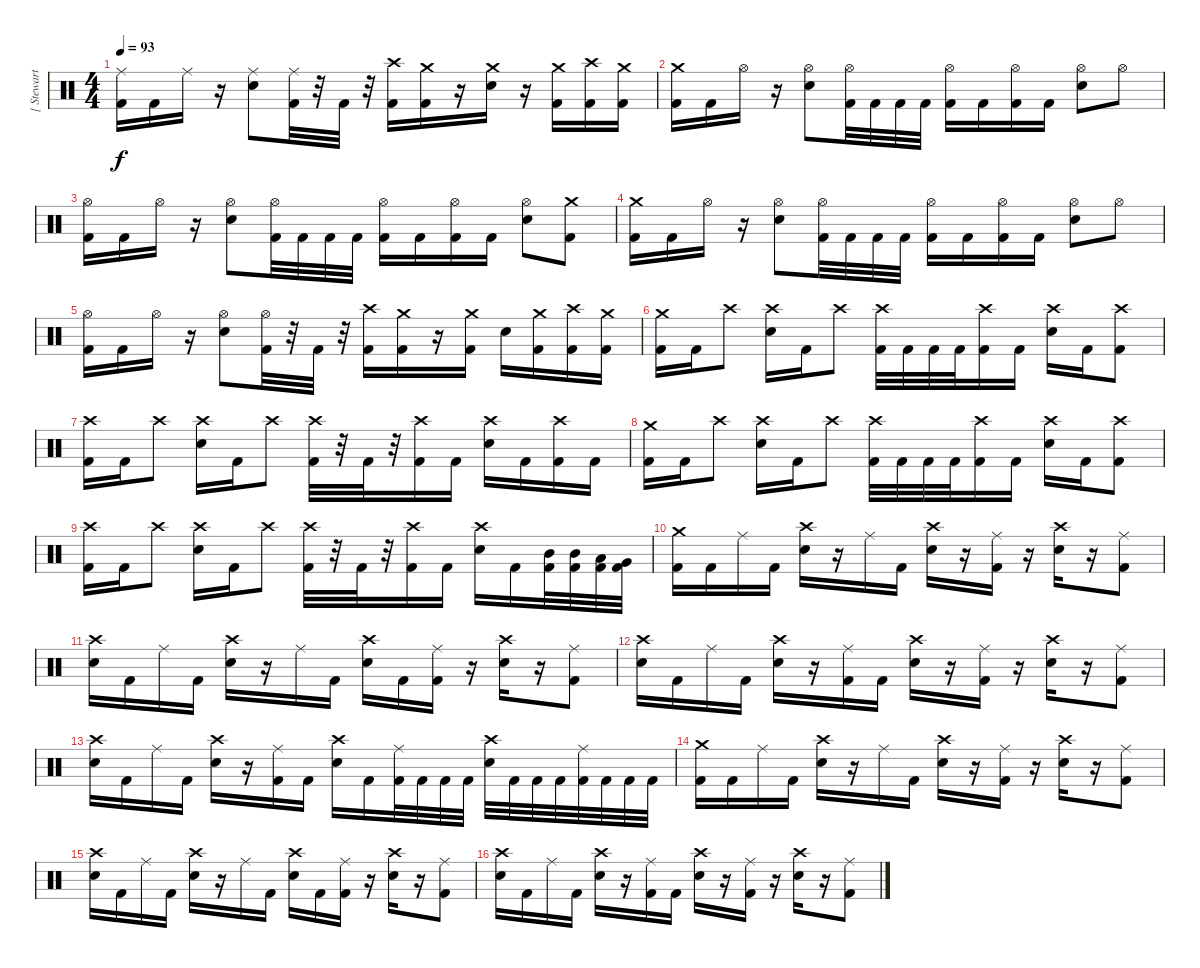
\track ("[ Stewart ]" "[ Stewart ") {instrument percussion}
\staff {score}
\articulation defaults
\ts (4 4)
\tempo 93
\clef neutral
\ks c
("Kick (hit) 2" "Ride (middle)").16{dy f} "Kick (hit) 2".16 "Ride (middle)".16 r.16 ("Electric Snare (hit)" "Ride (middle)").8 ("Kick (hit) 2" "Ride (middle)").32 r.32 "Kick (hit) 2".32 r.32 ("Kick (hit) 2" "Crash high (hit)").16 ("Kick (hit) 2" "Crash medium (hit)").16 r.16 ("Electric Snare (hit)" "Crash medium (hit)").16 r.16 ("Kick (hit) 2" "Crash medium (hit)").16 ("Kick (hit) 2" "Crash high (hit)").16 ("Kick (hit) 2" "Crash medium (hit)").16 |
("Kick (hit) 2" "Crash medium (hit)").16 "Kick (hit) 2".16 "Hi-Hat (open)".16 r.16 ("Electric Snare (hit)" "Hi-Hat (open)").8 ("Kick (hit) 2" "Hi-Hat (open)").32 "Kick (hit) 2".32 "Kick (hit) 2".32 "Kick (hit) 2".32 ("Kick (hit) 2" "Hi-Hat (open)").16 "Kick (hit) 2".16 ("Kick (hit) 2" "Hi-Hat (open)").16 "Kick (hit) 2".16 ("Electric Snare (hit)" "Hi-Hat (open)").8 "Hi-Hat (open)".8 |
("Kick (hit) 2" "Hi-Hat (open)").16 "Kick (hit) 2".16 "Hi-Hat (open)".16 r.16 ("Electric Snare (hit)" "Hi-Hat (open)").8 ("Kick (hit) 2" "Hi-Hat (open)").32 "Kick (hit) 2".32 "Kick (hit) 2".32 "Kick (hit) 2".32 ("Kick (hit) 2" "Hi-Hat (open)").16 "Kick (hit) 2".16 ("Kick (hit) 2" "Hi-Hat (open)").16 "Kick (hit) 2".16 ("Electric Snare (hit)" "Hi-Hat (open)").8 ("Kick (hit) 2" "Crash medium (hit)").8 |
("Kick (hit) 2" "Crash medium (hit)").16 "Kick (hit) 2".16 "Hi-Hat (open)".16 r.16 ("Electric Snare (hit)" "Hi-Hat (open)").8 ("Kick (hit) 2" "Hi-Hat (open)").32 "Kick (hit) 2".32 "Kick (hit) 2".32 "Kick (hit) 2".32 ("Kick (hit) 2" "Hi-Hat (open)").16 "Kick (hit) 2".16 ("Kick (hit) 2" "Hi-Hat (open)").16 "Kick (hit) 2".16 ("Electric Snare (hit)" "Hi-Hat (open)").8 "Hi-Hat (open)".8 |
("Kick (hit) 2" "Hi-Hat (open)").16 "Kick (hit) 2".16 "Hi-Hat (open)".16 r.16 ("Electric Snare (hit)" "Hi-Hat (open)").8 ("Kick (hit) 2" "Hi-Hat (open)").32 r.32 "Kick (hit) 2".32 r.32 ("Kick (hit) 2" "Crash high (hit)").16 ("Kick (hit) 2" "Crash medium (hit)").16 r.16 ("Kick (hit) 2" "Crash medium (hit)").16 "Electric Snare (hit)".16 ("Kick (hit) 2" "Crash medium (hit)").16 ("Kick (hit) 2" "Crash high (hit)").16 ("Kick (hit) 2" "Crash medium (hit)").16 |
("Kick (hit) 2" "Crash medium (hit)").16 "Kick (hit) 2".16 "Crash high (hit)".8 ("Electric Snare (hit)" "Crash high (hit)").16 "Kick (hit) 2".16 "Crash high (hit)".8 ("Kick (hit) 2" "Crash high (hit)").32 "Kick (hit) 2".32 "Kick (hit) 2".32 "Kick (hit) 2".32 ("Kick (hit) 2" "Crash high (hit)").16 "Kick (hit) 2".16 ("Electric Snare (hit)" "Crash high (hit)").16 "Kick (hit) 2".16 ("Kick (hit) 2" "Crash high (hit)").8 |
("Kick (hit) 2" "Crash high (hit)").16 "Kick (hit) 2".16 "Crash high (hit)".8 ("Electric Snare (hit)" "Crash high (hit)").16 "Kick (hit) 2".16 "Crash high (hit)".8 ("Kick (hit) 2" "Crash high (hit)").32 r.32 "Kick (hit) 2".32 r.32 ("Kick (hit) 2" "Crash high (hit)").16 "Kick (hit) 2".16 ("Electric Snare (hit)" "Crash high (hit)").16 "Kick (hit) 2".16 ("Kick (hit) 2" "Crash high (hit)").16 "Kick (hit) 2".16 |
("Kick (hit) 2" "Crash medium (hit)").16 "Kick (hit) 2".16 "Crash high (hit)".8 ("Electric Snare (hit)" "Crash high (hit)").16 "Kick (hit) 2".16 "Crash high (hit)".8 ("Kick (hit) 2" "Crash high (hit)").32 "Kick (hit) 2".32 "Kick (hit) 2".32 "Kick (hit) 2".32 ("Kick (hit) 2" "Crash high (hit)").16 "Kick (hit) 2".16 ("Electric Snare (hit)" "Crash high (hit)").16 "Kick (hit) 2".16 ("Kick (hit) 2" "Crash high (hit)").8 |
("Kick (hit) 2" "Crash high (hit)").16 "Kick (hit) 2".16 "Crash high (hit)".8 ("Electric Snare (hit)" "Crash high (hit)").16 "Kick (hit) 2".16 "Crash high (hit)".8 ("Kick (hit) 2" "Crash high (hit)").32 r.32 "Kick (hit) 2".32 r.32 ("Kick (hit) 2" "Crash high (hit)").16 "Kick (hit) 2".16 ("Electric Snare (hit)" "Crash high (hit)").16 "Kick (hit) 2".16 ("Mid Tom (hit)" "Kick (hit) 2").32 ("Mid Tom (hit)" "Kick (hit) 2").32 ("Low Tom (hit)" "Kick (hit) 2").32 ("Very Low Tom (hit)" "Kick (hit) 2").32 |
("Kick (hit) 2" "Crash medium (hit)").16 "Kick (hit) 2".16 "Ride (middle)".16 "Kick (hit) 2".16 ("Electric Snare (hit)" "Crash high (hit)").16 r.16 "Ride (middle)".16 "Kick (hit) 2".16 ("Electric Snare (hit)" "Crash high (hit)").16 r.16 ("Kick (hit) 2" "Ride (middle)").16 r.16 ("Electric Snare (hit)" "Crash high (hit)").16 r.16 ("Kick (hit) 2" "Ride (middle)").8 |
("Electric Snare (hit)" "Crash high (hit)").16 "Kick (hit) 2".16 "Ride (middle)".16 "Kick (hit) 2".16 ("Electric Snare (hit)" "Crash high (hit)").16 r.16 "Ride (middle)".16 "Kick (hit) 2".16 ("Electric Snare (hit)" "Crash high (hit)").16 "Kick (hit) 2".16 ("Kick (hit) 2" "Ride (middle)").16 r.16 ("Electric Snare (hit)" "Crash high (hit)").16 r.16 ("Kick (hit) 2" "Ride (middle)").8 |
("Electric Snare (hit)" "Crash high (hit)").16 "Kick (hit) 2".16 "Ride (middle)".16 "Kick (hit) 2".16 ("Electric Snare (hit)" "Crash high (hit)").16 r.16 ("Kick (hit) 2" "Ride (middle)").16 "Kick (hit) 2".16 ("Electric Snare (hit)" "Crash high (hit)").16 r.16 ("Kick (hit) 2" "Ride (middle)").16 r.16 ("Electric Snare (hit)" "Crash high (hit)").16 r.16 ("Kick (hit) 2" "Ride (middle)").8 |
("Electric Snare (hit)" "Crash high (hit)").16 "Kick (hit) 2".16 "Ride (middle)".16 "Kick (hit) 2".16 ("Electric Snare (hit)" "Crash high (hit)").16 r.16 ("Kick (hit) 2" "Ride (middle)").16 "Kick (hit) 2".16 ("Electric Snare (hit)" "Crash high (hit)").16 "Kick (hit) 2".16 ("Kick (hit) 2" "Ride (middle)").32 "Kick (hit) 2".32 "Kick (hit) 2".32 "Kick (hit) 2".32 ("Electric Snare (hit)" "Crash high (hit)").32 "Kick (hit) 2".32 "Kick (hit) 2".32 "Kick (hit) 2".32 ("Kick (hit) 2" "Ride (middle)").32 "Kick (hit) 2".32 "Kick (hit) 2".32 "Kick (hit) 2".32 |
("Kick (hit) 2" "Crash medium (hit)").16 "Kick (hit) 2".16 "Ride (middle)".16 "Kick (hit) 2".16 ("Electric Snare (hit)" "Crash high (hit)").16 r.16 "Ride (middle)".16 "Kick (hit) 2".16 ("Electric Snare (hit)" "Crash high (hit)").16 r.16 ("Kick (hit) 2" "Ride (middle)").16 r.16 ("Electric Snare (hit)" "Crash high (hit)").16 r.16 ("Kick (hit) 2" "Ride (middle)").8 |
("Electric Snare (hit)" "Crash high (hit)").16 "Kick (hit) 2".16 "Ride (middle)".16 "Kick (hit) 2".16 ("Electric Snare (hit)" "Crash high (hit)").16 r.16 "Ride (middle)".16 "Kick (hit) 2".16 ("Electric Snare (hit)" "Crash high (hit)").16 "Kick (hit) 2".16 ("Kick (hit) 2" "Ride (middle)").16 r.16 ("Electric Snare (hit)" "Crash high (hit)").16 r.16 ("Kick (hit) 2" "Ride (middle)").8 |
("Electric Snare (hit)" "Crash high (hit)").16 "Kick (hit) 2".16 "Ride (middle)".16 "Kick (hit) 2".16 ("Electric Snare (hit)" "Crash high (hit)").16 r.16 ("Kick (hit) 2" "Ride (middle)").16 "Kick (hit) 2".16 ("Electric Snare (hit)" "Crash high (hit)").16 r.16 ("Kick (hit) 2" "Ride (middle)").16 r.16 ("Electric Snare (hit)" "Crash high (hit)").16 r.16 ("Kick (hit) 2" "Ride (middle)").8
